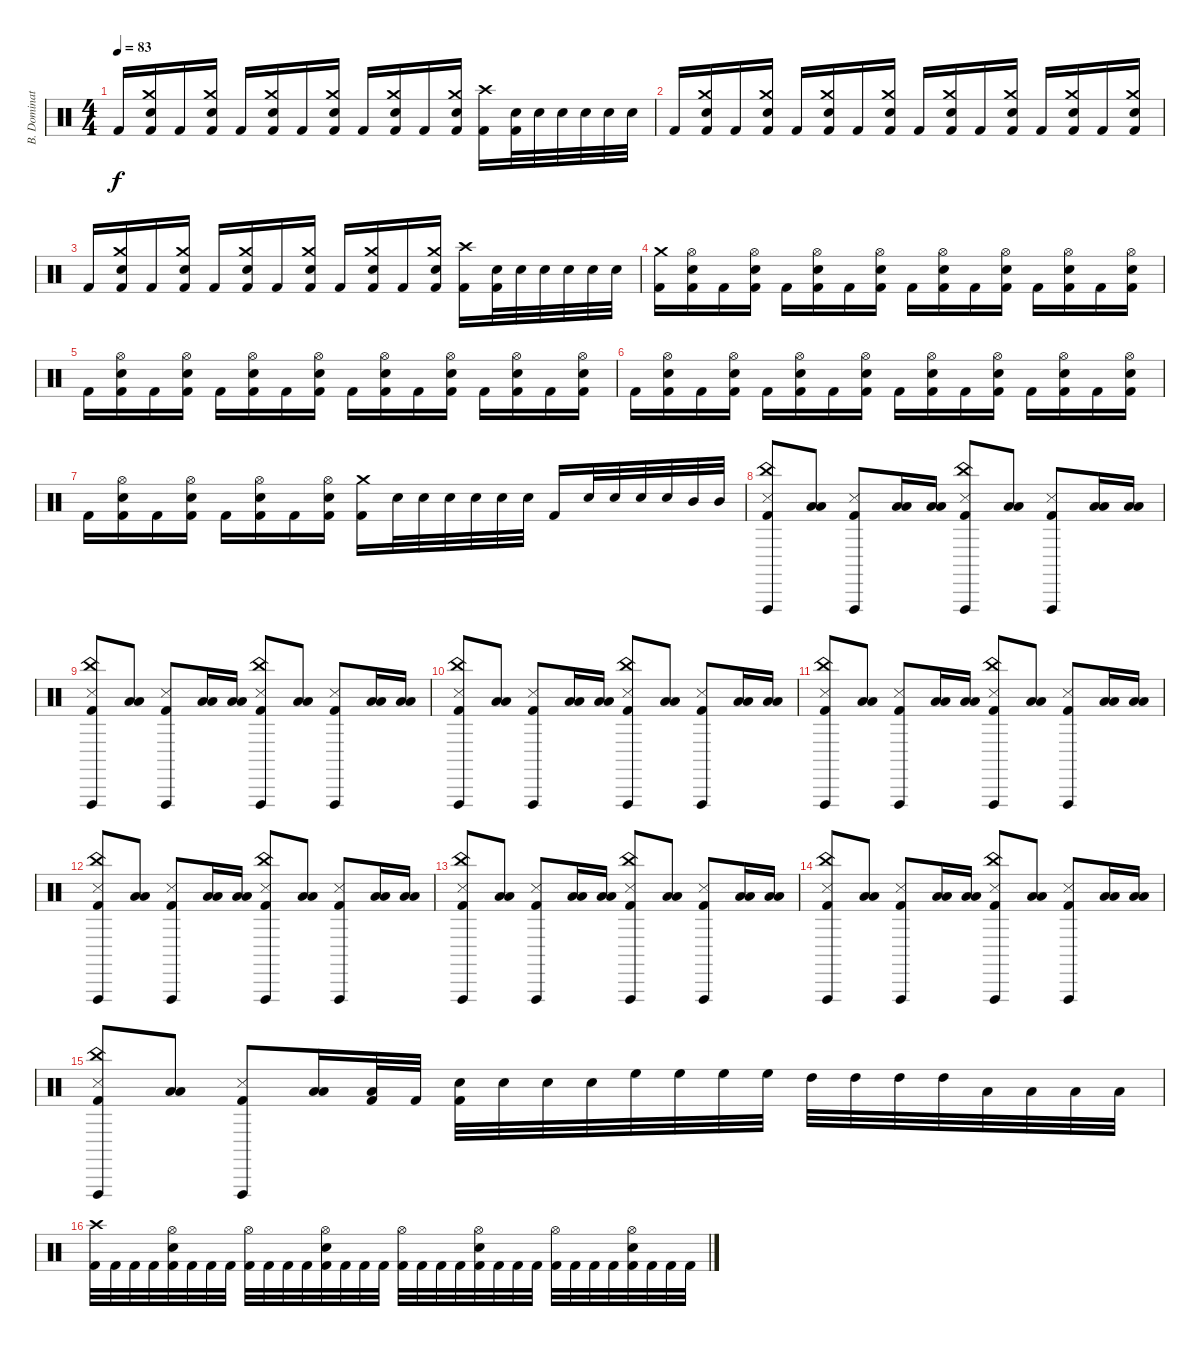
\track ("B. Dominator" "B. Dominat") {instrument percussion}
\staff {score}
\articulation defaults
\ts (4 4)
\tempo 83
\clef neutral
\ks c "Kick (hit) 2".16{dy f}
("Crash medium (hit)" "Electric Snare (hit)" "Kick (hit) 2").16 "Kick (hit) 2".16 ("Crash medium (hit)" "Electric Snare (hit)" "Kick (hit) 2").16 "Kick (hit) 2".16 ("Crash medium (hit)" "Electric Snare (hit)" "Kick (hit) 2").16 "Kick (hit) 2".16 ("Crash medium (hit)" "Electric Snare (hit)" "Kick (hit) 2").16 "Kick (hit) 2".16 ("Crash medium (hit)" "Electric Snare (hit)" "Kick (hit) 2").16 "Kick (hit) 2".16 ("Crash medium (hit)" "Electric Snare (hit)" "Kick (hit) 2").16 ("Crash high (hit)" "Kick (hit) 2").16 ("Electric Snare (hit)" "Kick (hit) 2").32 "Electric Snare (hit)".32 "Electric Snare (hit)".32 "Electric Snare (hit)".32 "Electric Snare (hit)".32 "Electric Snare (hit)".32 |
"Kick (hit) 2".16 ("Crash medium (hit)" "Electric Snare (hit)" "Kick (hit) 2").16 "Kick (hit) 2".16 ("Crash medium (hit)" "Electric Snare (hit)" "Kick (hit) 2").16 "Kick (hit) 2".16 ("Crash medium (hit)" "Electric Snare (hit)" "Kick (hit) 2").16 "Kick (hit) 2".16 ("Crash medium (hit)" "Electric Snare (hit)" "Kick (hit) 2").16 "Kick (hit) 2".16 ("Crash medium (hit)" "Electric Snare (hit)" "Kick (hit) 2").16 "Kick (hit) 2".16 ("Crash medium (hit)" "Electric Snare (hit)" "Kick (hit) 2").16 "Kick (hit) 2".16 ("Crash medium (hit)" "Electric Snare (hit)" "Kick (hit) 2").16 "Kick (hit) 2".16 ("Crash medium (hit)" "Electric Snare (hit)" "Kick (hit) 2").16 |
"Kick (hit) 2".16 ("Crash medium (hit)" "Electric Snare (hit)" "Kick (hit) 2").16 "Kick (hit) 2".16 ("Crash medium (hit)" "Electric Snare (hit)" "Kick (hit) 2").16 "Kick (hit) 2".16 ("Crash medium (hit)" "Electric Snare (hit)" "Kick (hit) 2").16 "Kick (hit) 2".16 ("Crash medium (hit)" "Electric Snare (hit)" "Kick (hit) 2").16 "Kick (hit) 2".16 ("Crash medium (hit)" "Electric Snare (hit)" "Kick (hit) 2").16 "Kick (hit) 2".16 ("Crash medium (hit)" "Electric Snare (hit)" "Kick (hit) 2").16 ("Crash high (hit)" "Kick (hit) 2").16 ("Electric Snare (hit)" "Kick (hit) 2").32 "Electric Snare (hit)".32 "Electric Snare (hit)".32 "Electric Snare (hit)".32 "Electric Snare (hit)".32 "Electric Snare (hit)".32 |
("Crash medium (hit)" "Kick (hit) 2").16 ("Hi-Hat (open)" "Electric Snare (hit)" "Kick (hit) 2").16 "Kick (hit) 2".16 ("Hi-Hat (open)" "Electric Snare (hit)" "Kick (hit) 2").16 "Kick (hit) 2".16 ("Hi-Hat (open)" "Electric Snare (hit)" "Kick (hit) 2").16 "Kick (hit) 2".16 ("Hi-Hat (open)" "Electric Snare (hit)" "Kick (hit) 2").16 "Kick (hit) 2".16 ("Hi-Hat (open)" "Electric Snare (hit)" "Kick (hit) 2").16 "Kick (hit) 2".16 ("Hi-Hat (open)" "Electric Snare (hit)" "Kick (hit) 2").16 "Kick (hit) 2".16 ("Hi-Hat (open)" "Electric Snare (hit)" "Kick (hit) 2").16 "Kick (hit) 2".16 ("Hi-Hat (open)" "Electric Snare (hit)" "Kick (hit) 2").16 |
"Kick (hit) 2".16 ("Hi-Hat (open)" "Electric Snare (hit)" "Kick (hit) 2").16 "Kick (hit) 2".16 ("Hi-Hat (open)" "Electric Snare (hit)" "Kick (hit) 2").16 "Kick (hit) 2".16 ("Hi-Hat (open)" "Electric Snare (hit)" "Kick (hit) 2").16 "Kick (hit) 2".16 ("Hi-Hat (open)" "Electric Snare (hit)" "Kick (hit) 2").16 "Kick (hit) 2".16 ("Hi-Hat (open)" "Electric Snare (hit)" "Kick (hit) 2").16 "Kick (hit) 2".16 ("Hi-Hat (open)" "Electric Snare (hit)" "Kick (hit) 2").16 "Kick (hit) 2".16 ("Hi-Hat (open)" "Electric Snare (hit)" "Kick (hit) 2").16 "Kick (hit) 2".16 ("Hi-Hat (open)" "Electric Snare (hit)" "Kick (hit) 2").16 |
"Kick (hit) 2".16 ("Hi-Hat (open)" "Electric Snare (hit)" "Kick (hit) 2").16 "Kick (hit) 2".16 ("Hi-Hat (open)" "Electric Snare (hit)" "Kick (hit) 2").16 "Kick (hit) 2".16 ("Hi-Hat (open)" "Electric Snare (hit)" "Kick (hit) 2").16 "Kick (hit) 2".16 ("Hi-Hat (open)" "Electric Snare (hit)" "Kick (hit) 2").16 "Kick (hit) 2".16 ("Hi-Hat (open)" "Electric Snare (hit)" "Kick (hit) 2").16 "Kick (hit) 2".16 ("Hi-Hat (open)" "Electric Snare (hit)" "Kick (hit) 2").16 "Kick (hit) 2".16 ("Hi-Hat (open)" "Electric Snare (hit)" "Kick (hit) 2").16 "Kick (hit) 2".16 ("Hi-Hat (open)" "Electric Snare (hit)" "Kick (hit) 2").16 |
"Kick (hit) 2".16 ("Hi-Hat (open)" "Electric Snare (hit)" "Kick (hit) 2").16 "Kick (hit) 2".16 ("Hi-Hat (open)" "Electric Snare (hit)" "Kick (hit) 2").16 "Kick (hit) 2".16 ("Hi-Hat (open)" "Electric Snare (hit)" "Kick (hit) 2").16 "Kick (hit) 2".16 ("Hi-Hat (open)" "Electric Snare (hit)" "Kick (hit) 2").16 ("Crash medium (hit)" "Kick (hit) 2").16 "Electric Snare (hit)".32 "Electric Snare (hit)".32 "Electric Snare (hit)".32 "Electric Snare (hit)".32 "Electric Snare (hit)".32 "Electric Snare (hit)".32 "Kick (hit) 2".16 "Electric Snare (hit)".32 "Electric Snare (hit)".32 "Electric Snare (hit)".32 "Electric Snare (hit)".32 "Mid Tom (hit)".32 "Mid Tom (hit)".32 |
("China (hit)" "Vibraslap (hit)" "Snare (side stick) 3" "Kick (hit) 2").8 ("Low Tom (hit)" "Low Floor Tom (hit)").8 ("Vibraslap (hit)" "Snare (side stick) 3" "Kick (hit) 2").8 ("Low Tom (hit)" "Low Floor Tom (hit)").16 ("Low Tom (hit)" "Low Floor Tom (hit)").16 ("China (hit)" "Vibraslap (hit)" "Snare (side stick) 3" "Kick (hit) 2").8 ("Low Tom (hit)" "Low Floor Tom (hit)").8 ("Vibraslap (hit)" "Snare (side stick) 3" "Kick (hit) 2").8 ("Low Tom (hit)" "Low Floor Tom (hit)").16 ("Low Tom (hit)" "Low Floor Tom (hit)").16 |
("China (hit)" "Vibraslap (hit)" "Snare (side stick) 3" "Kick (hit) 2").8 ("Low Tom (hit)" "Low Floor Tom (hit)").8 ("Vibraslap (hit)" "Snare (side stick) 3" "Kick (hit) 2").8 ("Low Tom (hit)" "Low Floor Tom (hit)").16 ("Low Tom (hit)" "Low Floor Tom (hit)").16 ("China (hit)" "Vibraslap (hit)" "Snare (side stick) 3" "Kick (hit) 2").8 ("Low Tom (hit)" "Low Floor Tom (hit)").8 ("Vibraslap (hit)" "Snare (side stick) 3" "Kick (hit) 2").8 ("Low Tom (hit)" "Low Floor Tom (hit)").16 ("Low Tom (hit)" "Low Floor Tom (hit)").16 |
("China (hit)" "Vibraslap (hit)" "Snare (side stick) 3" "Kick (hit) 2").8 ("Low Tom (hit)" "Low Floor Tom (hit)").8 ("Vibraslap (hit)" "Snare (side stick) 3" "Kick (hit) 2").8 ("Low Tom (hit)" "Low Floor Tom (hit)").16 ("Low Tom (hit)" "Low Floor Tom (hit)").16 ("China (hit)" "Vibraslap (hit)" "Snare (side stick) 3" "Kick (hit) 2").8 ("Low Tom (hit)" "Low Floor Tom (hit)").8 ("Vibraslap (hit)" "Snare (side stick) 3" "Kick (hit) 2").8 ("Low Tom (hit)" "Low Floor Tom (hit)").16 ("Low Tom (hit)" "Low Floor Tom (hit)").16 |
("China (hit)" "Vibraslap (hit)" "Snare (side stick) 3" "Kick (hit) 2").8 ("Low Tom (hit)" "Low Floor Tom (hit)").8 ("Vibraslap (hit)" "Snare (side stick) 3" "Kick (hit) 2").8 ("Low Tom (hit)" "Low Floor Tom (hit)").16 ("Low Tom (hit)" "Low Floor Tom (hit)").16 ("China (hit)" "Vibraslap (hit)" "Snare (side stick) 3" "Kick (hit) 2").8 ("Low Tom (hit)" "Low Floor Tom (hit)").8 ("Vibraslap (hit)" "Snare (side stick) 3" "Kick (hit) 2").8 ("Low Tom (hit)" "Low Floor Tom (hit)").16 ("Low Tom (hit)" "Low Floor Tom (hit)").16 |
("China (hit)" "Vibraslap (hit)" "Snare (side stick) 3" "Kick (hit) 2").8 ("Low Tom (hit)" "Low Floor Tom (hit)").8 ("Vibraslap (hit)" "Snare (side stick) 3" "Kick (hit) 2").8 ("Low Tom (hit)" "Low Floor Tom (hit)").16 ("Low Tom (hit)" "Low Floor Tom (hit)").16 ("China (hit)" "Vibraslap (hit)" "Snare (side stick) 3" "Kick (hit) 2").8 ("Low Tom (hit)" "Low Floor Tom (hit)").8 ("Vibraslap (hit)" "Snare (side stick) 3" "Kick (hit) 2").8 ("Low Tom (hit)" "Low Floor Tom (hit)").16 ("Low Tom (hit)" "Low Floor Tom (hit)").16 |
("China (hit)" "Vibraslap (hit)" "Snare (side stick) 3" "Kick (hit) 2").8 ("Low Tom (hit)" "Low Floor Tom (hit)").8 ("Vibraslap (hit)" "Snare (side stick) 3" "Kick (hit) 2").8 ("Low Tom (hit)" "Low Floor Tom (hit)").16 ("Low Tom (hit)" "Low Floor Tom (hit)").16 ("China (hit)" "Vibraslap (hit)" "Snare (side stick) 3" "Kick (hit) 2").8 ("Low Tom (hit)" "Low Floor Tom (hit)").8 ("Vibraslap (hit)" "Snare (side stick) 3" "Kick (hit) 2").8 ("Low Tom (hit)" "Low Floor Tom (hit)").16 ("Low Tom (hit)" "Low Floor Tom (hit)").16 |
("China (hit)" "Vibraslap (hit)" "Snare (side stick) 3" "Kick (hit) 2").8 ("Low Tom (hit)" "Low Floor Tom (hit)").8 ("Vibraslap (hit)" "Snare (side stick) 3" "Kick (hit) 2").8 ("Low Tom (hit)" "Low Floor Tom (hit)").16 ("Low Tom (hit)" "Low Floor Tom (hit)").16 ("China (hit)" "Vibraslap (hit)" "Snare (side stick) 3" "Kick (hit) 2").8 ("Low Tom (hit)" "Low Floor Tom (hit)").8 ("Vibraslap (hit)" "Snare (side stick) 3" "Kick (hit) 2").8 ("Low Tom (hit)" "Low Floor Tom (hit)").16 ("Low Tom (hit)" "Low Floor Tom (hit)").16 |
("China (hit)" "Vibraslap (hit)" "Snare (side stick) 3" "Kick (hit) 2").8 ("Low Tom (hit)" "Low Floor Tom (hit)").8 ("Vibraslap (hit)" "Snare (side stick) 3" "Kick (hit) 2").8 ("Low Tom (hit)" "Low Floor Tom (hit)").16 ("Low Tom (hit)" "Kick (hit) 2").32 "Kick (hit) 2".32 ("Electric Snare (hit)" "Kick (hit) 2").32 "Electric Snare (hit)".32 "Electric Snare (hit)".32 "Electric Snare (hit)".32 "High Floor Tom (hit)".32 "High Floor Tom (hit)".32 "High Floor Tom (hit)".32 "High Floor Tom (hit)".32 "High Tom (hit)".32 "High Tom (hit)".32 "High Tom (hit)".32 "High Tom (hit)".32 "Low Tom (hit)".32 "Low Tom (hit)".32 "Low Tom (hit)".32 "Low Tom (hit)".32 |
("Crash high (hit)" "Kick (hit) 2").32 "Kick (hit) 2".32 "Kick (hit) 2".32 "Kick (hit) 2".32 ("Hi-Hat (open)" "Electric Snare (hit)" "Kick (hit) 2").32 "Kick (hit) 2".32 "Kick (hit) 2".32 "Kick (hit) 2".32 ("Hi-Hat (open)" "Kick (hit) 2").32 "Kick (hit) 2".32 "Kick (hit) 2".32 "Kick (hit) 2".32 ("Hi-Hat (open)" "Electric Snare (hit)" "Kick (hit) 2").32 "Kick (hit) 2".32 "Kick (hit) 2".32 "Kick (hit) 2".32 ("Hi-Hat (open)" "Kick (hit) 2").32 "Kick (hit) 2".32 "Kick (hit) 2".32 "Kick (hit) 2".32 ("Hi-Hat (open)" "Electric Snare (hit)" "Kick (hit) 2").32 "Kick (hit) 2".32 "Kick (hit) 2".32 "Kick (hit) 2".32 ("Hi-Hat (open)" "Kick (hit) 2").32 "Kick (hit) 2".32 "Kick (hit) 2".32 "Kick (hit) 2".32 ("Hi-Hat (open)" "Electric Snare (hit)" "Kick (hit) 2").32 "Kick (hit) 2".32 "Kick (hit) 2".32 "Kick (hit) 2".32
